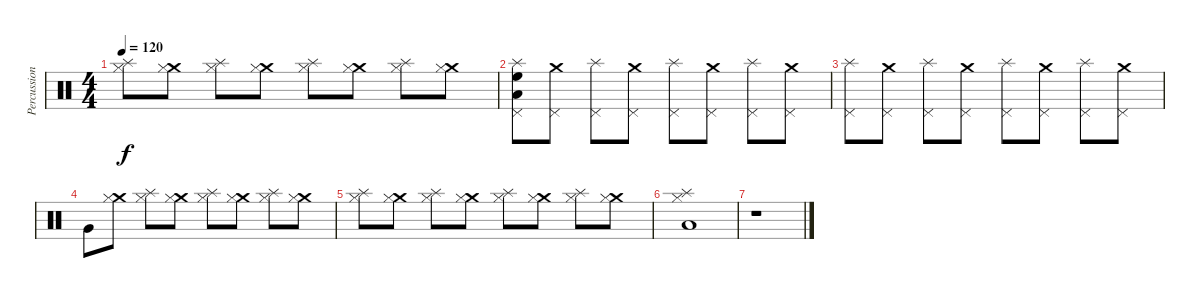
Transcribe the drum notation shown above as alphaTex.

\track ("Percussion" "Percussion") {instrument percussion}
\staff {score}
\articulation defaults
\ts (4 4)
\tempo 120
\clef neutral
\ks c
("Splash (hit)" "Hi-Hat (closed)").8{dy f} ("Crash medium (hit)" "Hi-Hat (closed)").8 ("Splash (hit)" "Hi-Hat (closed)").8 ("Crash medium (hit)" "Hi-Hat (closed)").8 ("Splash (hit)" "Hi-Hat (closed)").8 ("Crash medium (hit)" "Hi-Hat (closed)").8 ("Splash (hit)" "Hi-Hat (closed)").8 ("Crash medium (hit)" "Hi-Hat (closed)").8 |
("Splash (hit)" "Pedal Hi-Hat (hit)" "High Floor Tom (hit)" "Low Tom (hit)").8 ("Crash medium (hit)" "Pedal Hi-Hat (hit)").8 ("Splash (hit)" "Pedal Hi-Hat (hit)").8 ("Crash medium (hit)" "Pedal Hi-Hat (hit)").8 ("Splash (hit)" "Pedal Hi-Hat (hit)").8 ("Crash medium (hit)" "Pedal Hi-Hat (hit)").8 ("Splash (hit)" "Pedal Hi-Hat (hit)").8 ("Crash medium (hit)" "Pedal Hi-Hat (hit)").8 |
("Splash (hit)" "Pedal Hi-Hat (hit)").8 ("Crash medium (hit)" "Pedal Hi-Hat (hit)").8 ("Splash (hit)" "Pedal Hi-Hat (hit)").8 ("Crash medium (hit)" "Pedal Hi-Hat (hit)").8 ("Splash (hit)" "Pedal Hi-Hat (hit)").8 ("Crash medium (hit)" "Pedal Hi-Hat (hit)").8 ("Splash (hit)" "Pedal Hi-Hat (hit)").8 ("Crash medium (hit)" "Pedal Hi-Hat (hit)").8 |
"Very Low Tom (hit)".8 ("Crash medium (hit)" "Hi-Hat (closed)").8 ("Splash (hit)" "Hi-Hat (closed)").8 ("Crash medium (hit)" "Hi-Hat (closed)").8 ("Splash (hit)" "Hi-Hat (closed)").8 ("Crash medium (hit)" "Hi-Hat (closed)").8 ("Splash (hit)" "Hi-Hat (closed)").8 ("Crash medium (hit)" "Hi-Hat (closed)").8 |
("Splash (hit)" "Hi-Hat (closed)").8 ("Crash medium (hit)" "Hi-Hat (closed)").8 ("Splash (hit)" "Hi-Hat (closed)").8 ("Crash medium (hit)" "Hi-Hat (closed)").8 ("Splash (hit)" "Hi-Hat (closed)").8 ("Crash medium (hit)" "Hi-Hat (closed)").8 ("Splash (hit)" "Hi-Hat (closed)").8 ("Crash medium (hit)" "Hi-Hat (closed)").8 |
("Splash (hit)" "Low Floor Tom (hit)" "Hi-Hat (closed)").1 |
r.1
